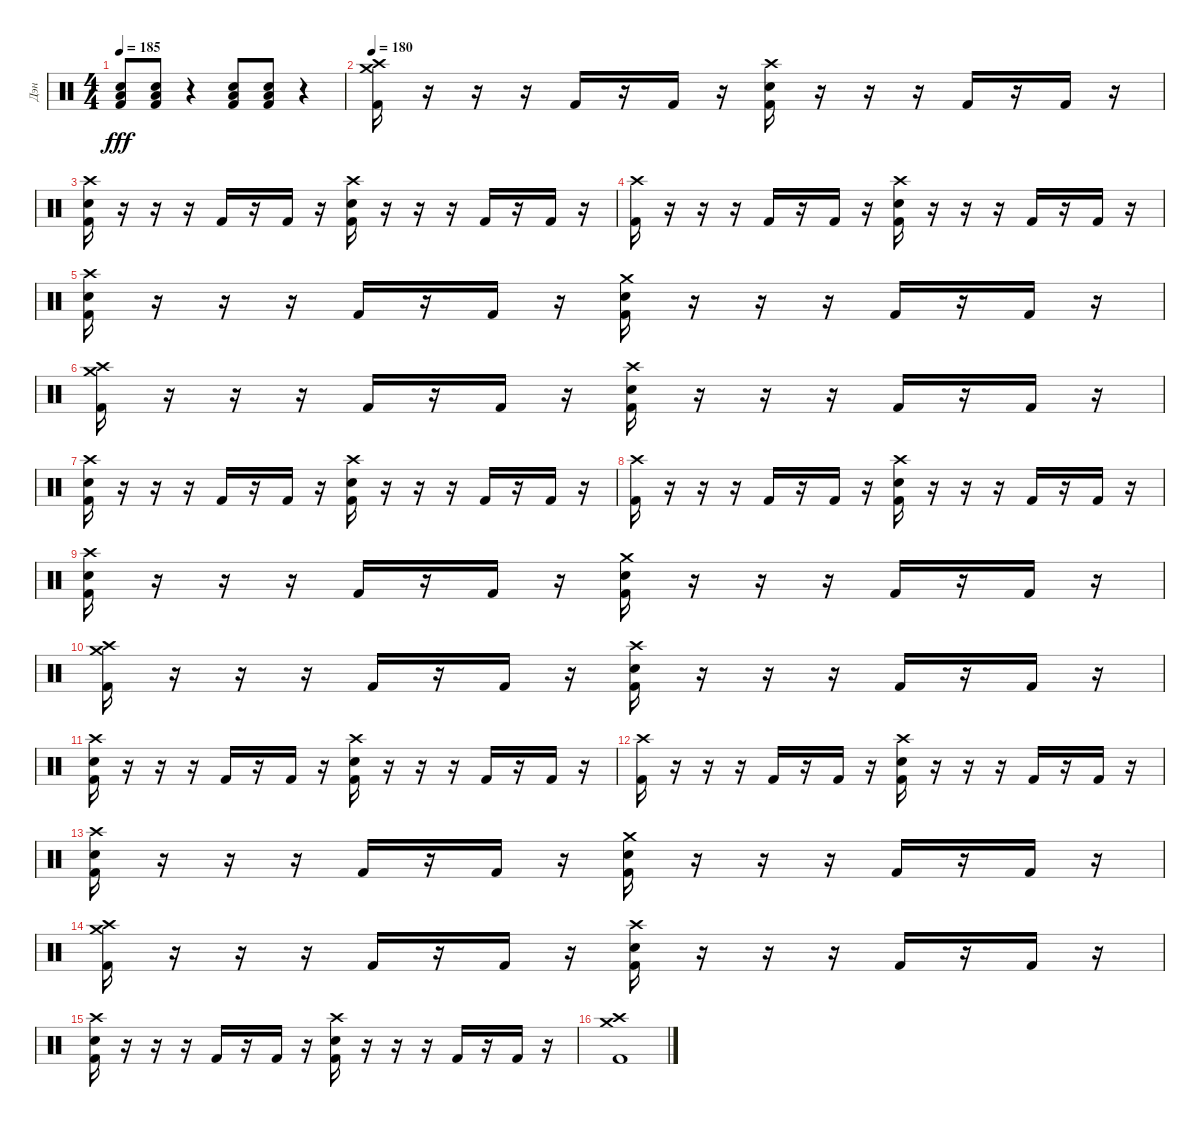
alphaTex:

\track ("Дэн" "Дэн") {instrument percussion}
\staff {score}
\articulation defaults
\ts (4 4)
\tempo 185
\clef neutral
\ks c
("Electric Snare (hit)" "Low Floor Tom (hit)" "Kick (hit) 2").8{dy fff} ("Electric Snare (hit)" "Low Floor Tom (hit)" "Kick (hit) 2").8 r.4 ("Electric Snare (hit)" "Low Floor Tom (hit)" "Kick (hit) 2").8 ("Electric Snare (hit)" "Low Floor Tom (hit)" "Kick (hit) 2").8 r.4 |
\tempo 180
("Crash high (hit)" "Crash medium (hit)" "Kick (hit) 2").16 r.16 r.16 r.16 "Kick (hit) 2".16 r.16 "Kick (hit) 2".16 r.16 ("Crash high (hit)" "Electric Snare (hit)" "Kick (hit) 2").16 r.16 r.16 r.16 "Kick (hit) 2".16 r.16 "Kick (hit) 2".16 r.16 |
("Crash high (hit)" "Electric Snare (hit)" "Kick (hit) 2").16 r.16 r.16 r.16 "Kick (hit) 2".16 r.16 "Kick (hit) 2".16 r.16 ("Crash high (hit)" "Electric Snare (hit)" "Kick (hit) 2").16 r.16 r.16 r.16 "Kick (hit) 2".16 r.16 "Kick (hit) 2".16 r.16 |
("Crash high (hit)" "Kick (hit) 2").16 r.16 r.16 r.16 "Kick (hit) 2".16 r.16 "Kick (hit) 2".16 r.16 ("Crash high (hit)" "Electric Snare (hit)" "Kick (hit) 2").16 r.16 r.16 r.16 "Kick (hit) 2".16 r.16 "Kick (hit) 2".16 r.16 |
("Crash high (hit)" "Electric Snare (hit)" "Kick (hit) 2").16 r.16 r.16 r.16 "Kick (hit) 2".16 r.16 "Kick (hit) 2".16 r.16 ("Crash medium (hit)" "Electric Snare (hit)" "Kick (hit) 2").16 r.16 r.16 r.16 "Kick (hit) 2".16 r.16 "Kick (hit) 2".16 r.16 |
("Crash high (hit)" "Crash medium (hit)" "Kick (hit) 2").16 r.16 r.16 r.16 "Kick (hit) 2".16 r.16 "Kick (hit) 2".16 r.16 ("Crash high (hit)" "Electric Snare (hit)" "Kick (hit) 2").16 r.16 r.16 r.16 "Kick (hit) 2".16 r.16 "Kick (hit) 2".16 r.16 |
("Crash high (hit)" "Electric Snare (hit)" "Kick (hit) 2").16 r.16 r.16 r.16 "Kick (hit) 2".16 r.16 "Kick (hit) 2".16 r.16 ("Crash high (hit)" "Electric Snare (hit)" "Kick (hit) 2").16 r.16 r.16 r.16 "Kick (hit) 2".16 r.16 "Kick (hit) 2".16 r.16 |
("Crash high (hit)" "Kick (hit) 2").16 r.16 r.16 r.16 "Kick (hit) 2".16 r.16 "Kick (hit) 2".16 r.16 ("Crash high (hit)" "Electric Snare (hit)" "Kick (hit) 2").16 r.16 r.16 r.16 "Kick (hit) 2".16 r.16 "Kick (hit) 2".16 r.16 |
("Crash high (hit)" "Electric Snare (hit)" "Kick (hit) 2").16 r.16 r.16 r.16 "Kick (hit) 2".16 r.16 "Kick (hit) 2".16 r.16 ("Crash medium (hit)" "Electric Snare (hit)" "Kick (hit) 2").16 r.16 r.16 r.16 "Kick (hit) 2".16 r.16 "Kick (hit) 2".16 r.16 |
("Crash high (hit)" "Crash medium (hit)" "Kick (hit) 2").16 r.16 r.16 r.16 "Kick (hit) 2".16 r.16 "Kick (hit) 2".16 r.16 ("Crash high (hit)" "Electric Snare (hit)" "Kick (hit) 2").16 r.16 r.16 r.16 "Kick (hit) 2".16 r.16 "Kick (hit) 2".16 r.16 |
("Crash high (hit)" "Electric Snare (hit)" "Kick (hit) 2").16 r.16 r.16 r.16 "Kick (hit) 2".16 r.16 "Kick (hit) 2".16 r.16 ("Crash high (hit)" "Electric Snare (hit)" "Kick (hit) 2").16 r.16 r.16 r.16 "Kick (hit) 2".16 r.16 "Kick (hit) 2".16 r.16 |
("Crash high (hit)" "Kick (hit) 2").16 r.16 r.16 r.16 "Kick (hit) 2".16 r.16 "Kick (hit) 2".16 r.16 ("Crash high (hit)" "Electric Snare (hit)" "Kick (hit) 2").16 r.16 r.16 r.16 "Kick (hit) 2".16 r.16 "Kick (hit) 2".16 r.16 |
("Crash high (hit)" "Electric Snare (hit)" "Kick (hit) 2").16 r.16 r.16 r.16 "Kick (hit) 2".16 r.16 "Kick (hit) 2".16 r.16 ("Crash medium (hit)" "Electric Snare (hit)" "Kick (hit) 2").16 r.16 r.16 r.16 "Kick (hit) 2".16 r.16 "Kick (hit) 2".16 r.16 |
("Crash high (hit)" "Crash medium (hit)" "Kick (hit) 2").16 r.16 r.16 r.16 "Kick (hit) 2".16 r.16 "Kick (hit) 2".16 r.16 ("Crash high (hit)" "Electric Snare (hit)" "Kick (hit) 2").16 r.16 r.16 r.16 "Kick (hit) 2".16 r.16 "Kick (hit) 2".16 r.16 |
("Crash high (hit)" "Electric Snare (hit)" "Kick (hit) 2").16 r.16 r.16 r.16 "Kick (hit) 2".16 r.16 "Kick (hit) 2".16 r.16 ("Crash high (hit)" "Electric Snare (hit)" "Kick (hit) 2").16 r.16 r.16 r.16 "Kick (hit) 2".16 r.16 "Kick (hit) 2".16 r.16 |
("Crash high (hit)" "Crash medium (hit)" "Kick (hit) 2").1
